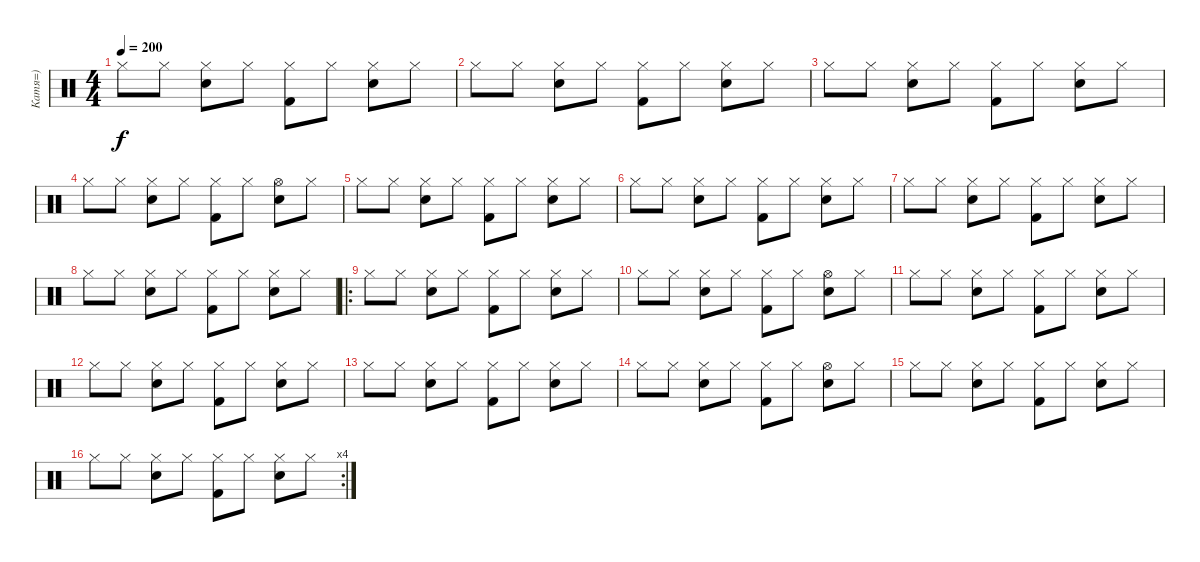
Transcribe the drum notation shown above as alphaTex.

\track ("Катя=)" "Катя=)") {instrument percussion}
\staff {score}
\articulation defaults
\ts (4 4)
\tempo 200
\clef neutral
\ks c "Hi-Hat (closed)".8{dy f} "Hi-Hat (closed)".8
("Hi-Hat (closed)" "Electric Snare (hit)").8 "Hi-Hat (closed)".8 ("Hi-Hat (closed)" "Kick (hit) 2").8 "Hi-Hat (closed)".8 ("Hi-Hat (closed)" "Electric Snare (hit)").8 "Hi-Hat (closed)".8 |
"Hi-Hat (closed)".8 "Hi-Hat (closed)".8 ("Hi-Hat (closed)" "Electric Snare (hit)").8 "Hi-Hat (closed)".8 ("Hi-Hat (closed)" "Kick (hit) 2").8 "Hi-Hat (closed)".8 ("Hi-Hat (closed)" "Electric Snare (hit)").8 "Hi-Hat (closed)".8 |
"Hi-Hat (closed)".8 "Hi-Hat (closed)".8 ("Hi-Hat (closed)" "Electric Snare (hit)").8 "Hi-Hat (closed)".8 ("Hi-Hat (closed)" "Kick (hit) 2").8 "Hi-Hat (closed)".8 ("Hi-Hat (closed)" "Electric Snare (hit)").8 "Hi-Hat (closed)".8 |
"Hi-Hat (closed)".8 "Hi-Hat (closed)".8 ("Hi-Hat (closed)" "Electric Snare (hit)").8 "Hi-Hat (closed)".8 ("Hi-Hat (closed)" "Kick (hit) 2").8 "Hi-Hat (closed)".8 ("Hi-Hat (open)" "Electric Snare (hit)").8 "Hi-Hat (closed)".8 |
"Hi-Hat (closed)".8 "Hi-Hat (closed)".8 ("Hi-Hat (closed)" "Electric Snare (hit)").8 "Hi-Hat (closed)".8 ("Hi-Hat (closed)" "Kick (hit) 2").8 "Hi-Hat (closed)".8 ("Hi-Hat (closed)" "Electric Snare (hit)").8 "Hi-Hat (closed)".8 |
"Hi-Hat (closed)".8 "Hi-Hat (closed)".8 ("Hi-Hat (closed)" "Electric Snare (hit)").8 "Hi-Hat (closed)".8 ("Hi-Hat (closed)" "Kick (hit) 2").8 "Hi-Hat (closed)".8 ("Hi-Hat (closed)" "Electric Snare (hit)").8 "Hi-Hat (closed)".8 |
"Hi-Hat (closed)".8 "Hi-Hat (closed)".8 ("Hi-Hat (closed)" "Electric Snare (hit)").8 "Hi-Hat (closed)".8 ("Hi-Hat (closed)" "Kick (hit) 2").8 "Hi-Hat (closed)".8 ("Hi-Hat (closed)" "Electric Snare (hit)").8 "Hi-Hat (closed)".8 |
"Hi-Hat (closed)".8 "Hi-Hat (closed)".8 ("Hi-Hat (closed)" "Electric Snare (hit)").8 "Hi-Hat (closed)".8 ("Hi-Hat (closed)" "Kick (hit) 2").8 "Hi-Hat (closed)".8 ("Hi-Hat (closed)" "Electric Snare (hit)").8 "Hi-Hat (closed)".8 |
\ro "Hi-Hat (closed)".8 "Hi-Hat (closed)".8
("Hi-Hat (closed)" "Electric Snare (hit)").8 "Hi-Hat (closed)".8 ("Hi-Hat (closed)" "Kick (hit) 2").8 "Hi-Hat (closed)".8 ("Hi-Hat (closed)" "Electric Snare (hit)").8 "Hi-Hat (closed)".8 |
"Hi-Hat (closed)".8 "Hi-Hat (closed)".8 ("Hi-Hat (closed)" "Electric Snare (hit)").8 "Hi-Hat (closed)".8 ("Hi-Hat (closed)" "Kick (hit) 2").8 "Hi-Hat (closed)".8 ("Hi-Hat (open)" "Electric Snare (hit)").8 "Hi-Hat (closed)".8 |
"Hi-Hat (closed)".8 "Hi-Hat (closed)".8 ("Hi-Hat (closed)" "Electric Snare (hit)").8 "Hi-Hat (closed)".8 ("Hi-Hat (closed)" "Kick (hit) 2").8 "Hi-Hat (closed)".8 ("Hi-Hat (closed)" "Electric Snare (hit)").8 "Hi-Hat (closed)".8 |
"Hi-Hat (closed)".8 "Hi-Hat (closed)".8 ("Hi-Hat (closed)" "Electric Snare (hit)").8 "Hi-Hat (closed)".8 ("Hi-Hat (closed)" "Kick (hit) 2").8 "Hi-Hat (closed)".8 ("Hi-Hat (closed)" "Electric Snare (hit)").8 "Hi-Hat (closed)".8 |
"Hi-Hat (closed)".8 "Hi-Hat (closed)".8 ("Hi-Hat (closed)" "Electric Snare (hit)").8 "Hi-Hat (closed)".8 ("Hi-Hat (closed)" "Kick (hit) 2").8 "Hi-Hat (closed)".8 ("Hi-Hat (closed)" "Electric Snare (hit)").8 "Hi-Hat (closed)".8 |
"Hi-Hat (closed)".8 "Hi-Hat (closed)".8 ("Hi-Hat (closed)" "Electric Snare (hit)").8 "Hi-Hat (closed)".8 ("Hi-Hat (closed)" "Kick (hit) 2").8 "Hi-Hat (closed)".8 ("Hi-Hat (open)" "Electric Snare (hit)").8 "Hi-Hat (closed)".8 |
"Hi-Hat (closed)".8 "Hi-Hat (closed)".8 ("Hi-Hat (closed)" "Electric Snare (hit)").8 "Hi-Hat (closed)".8 ("Hi-Hat (closed)" "Kick (hit) 2").8 "Hi-Hat (closed)".8 ("Hi-Hat (closed)" "Electric Snare (hit)").8 "Hi-Hat (closed)".8 |
\rc 4 "Hi-Hat (closed)".8 "Hi-Hat (closed)".8
("Hi-Hat (closed)" "Electric Snare (hit)").8 "Hi-Hat (closed)".8 ("Hi-Hat (closed)" "Kick (hit) 2").8 "Hi-Hat (closed)".8 ("Hi-Hat (closed)" "Electric Snare (hit)").8 "Hi-Hat (closed)".8
